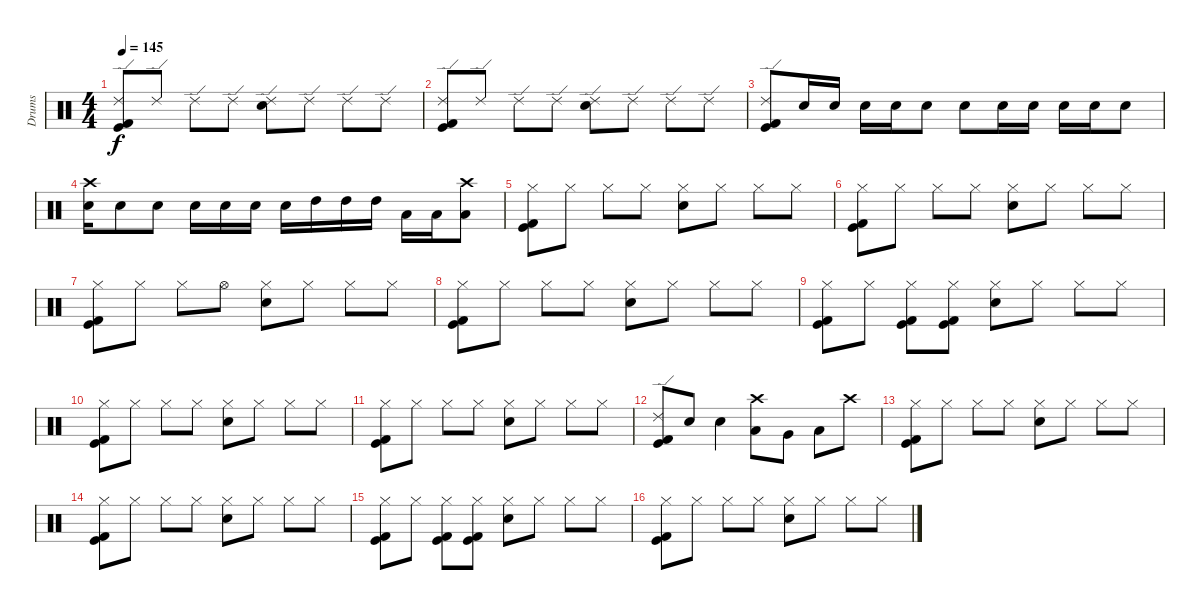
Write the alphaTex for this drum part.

\track ("Drums" "Drums") {instrument percussion}
\staff {score}
\articulation defaults
\ts (4 4)
\tempo 145
\clef neutral
\ks c
("Ride (edge) 2" "Kick (hit) 2" "Kick (hit)").8{dy f} "Ride (edge) 2".8 "Ride (edge) 2".8 "Ride (edge) 2".8 ("Ride (edge) 2" "Snare (hit) 2").8 "Ride (edge) 2".8 "Ride (edge) 2".8 "Ride (edge) 2".8 |
("Ride (edge) 2" "Kick (hit) 2" "Kick (hit)").8 "Ride (edge) 2".8 "Ride (edge) 2".8 "Ride (edge) 2".8 ("Ride (edge) 2" "Snare (hit) 2").8 "Ride (edge) 2".8 "Ride (edge) 2".8 "Ride (edge) 2".8 |
("Ride (edge) 2" "Kick (hit) 2" "Kick (hit)").8 "Snare (hit) 2".16 "Snare (hit) 2".16 "Snare (hit) 2".16 "Snare (hit) 2".16 "Snare (hit) 2".8 "Snare (hit) 2".8 "Snare (hit) 2".16 "Snare (hit) 2".16 "Snare (hit) 2".16 "Snare (hit) 2".16 "Snare (hit) 2".8 |
("Crash high (hit)" "Snare (hit) 2").16 "Snare (hit) 2".8 "Snare (hit) 2".8 "Snare (hit) 2".16 "Snare (hit) 2".16 "Snare (hit) 2".16 "Snare (hit) 2".16 "High Tom (hit)".16 "High Tom (hit)".16 "High Tom (hit)".16 "Low Tom (hit)".16 "Low Tom (hit)".16 ("Crash high (hit)" "Low Tom (hit)").8 |
("Hi-Hat (closed)" "Kick (hit) 2" "Kick (hit)").8 "Hi-Hat (closed)".8 "Hi-Hat (closed)".8 "Hi-Hat (closed)".8 ("Hi-Hat (closed)" "Snare (hit) 2").8 "Hi-Hat (closed)".8 "Hi-Hat (closed)".8 "Hi-Hat (closed)".8 |
("Hi-Hat (closed)" "Kick (hit) 2" "Kick (hit)").8 "Hi-Hat (closed)".8 "Hi-Hat (closed)".8 "Hi-Hat (closed)".8 ("Hi-Hat (closed)" "Snare (hit) 2").8 "Hi-Hat (closed)".8 "Hi-Hat (closed)".8 "Hi-Hat (closed)".8 |
("Hi-Hat (closed)" "Kick (hit) 2" "Kick (hit)").8 "Hi-Hat (closed)".8 "Hi-Hat (closed)".8 "Hi-Hat (open)".8 ("Hi-Hat (closed)" "Snare (hit) 2").8 "Hi-Hat (closed)".8 "Hi-Hat (closed)".8 "Hi-Hat (closed)".8 |
("Hi-Hat (closed)" "Kick (hit) 2" "Kick (hit)").8 "Hi-Hat (closed)".8 "Hi-Hat (closed)".8 "Hi-Hat (closed)".8 ("Hi-Hat (closed)" "Snare (hit) 2").8 "Hi-Hat (closed)".8 "Hi-Hat (closed)".8 "Hi-Hat (closed)".8 |
("Hi-Hat (closed)" "Kick (hit) 2" "Kick (hit)").8 "Hi-Hat (closed)".8 ("Hi-Hat (closed)" "Kick (hit) 2" "Kick (hit)").8 ("Hi-Hat (closed)" "Kick (hit) 2" "Kick (hit)").8 ("Hi-Hat (closed)" "Snare (hit) 2").8 "Hi-Hat (closed)".8 "Hi-Hat (closed)".8 "Hi-Hat (closed)".8 |
("Hi-Hat (closed)" "Kick (hit) 2" "Kick (hit)").8 "Hi-Hat (closed)".8 "Hi-Hat (closed)".8 "Hi-Hat (closed)".8 ("Hi-Hat (closed)" "Snare (hit) 2").8 "Hi-Hat (closed)".8 "Hi-Hat (closed)".8 "Hi-Hat (closed)".8 |
("Hi-Hat (closed)" "Kick (hit) 2" "Kick (hit)").8 "Hi-Hat (closed)".8 "Hi-Hat (closed)".8 "Hi-Hat (closed)".8 ("Hi-Hat (closed)" "Snare (hit) 2").8 "Hi-Hat (closed)".8 "Hi-Hat (closed)".8 "Hi-Hat (closed)".8 |
("Ride (edge) 2" "Kick (hit) 2" "Kick (hit)").8 "Snare (hit) 2".8 "Snare (hit) 2".4 ("Crash high (hit)" "Low Tom (hit)").8 "Very Low Tom (hit)".8 "Low Floor Tom (hit)".8 "Crash high (hit)".8 |
("Hi-Hat (closed)" "Kick (hit) 2" "Kick (hit)").8 "Hi-Hat (closed)".8 "Hi-Hat (closed)".8 "Hi-Hat (closed)".8 ("Hi-Hat (closed)" "Snare (hit) 2").8 "Hi-Hat (closed)".8 "Hi-Hat (closed)".8 "Hi-Hat (closed)".8 |
("Hi-Hat (closed)" "Kick (hit) 2" "Kick (hit)").8 "Hi-Hat (closed)".8 "Hi-Hat (closed)".8 "Hi-Hat (closed)".8 ("Hi-Hat (closed)" "Snare (hit) 2").8 "Hi-Hat (closed)".8 "Hi-Hat (closed)".8 "Hi-Hat (closed)".8 |
("Hi-Hat (closed)" "Kick (hit) 2" "Kick (hit)").8 "Hi-Hat (closed)".8 ("Hi-Hat (closed)" "Kick (hit) 2" "Kick (hit)").8 ("Hi-Hat (closed)" "Kick (hit) 2" "Kick (hit)").8 ("Hi-Hat (closed)" "Snare (hit) 2").8 "Hi-Hat (closed)".8 "Hi-Hat (closed)".8 "Hi-Hat (closed)".8 |
("Hi-Hat (closed)" "Kick (hit) 2" "Kick (hit)").8 "Hi-Hat (closed)".8 "Hi-Hat (closed)".8 "Hi-Hat (closed)".8 ("Hi-Hat (closed)" "Snare (hit) 2").8 "Hi-Hat (closed)".8 "Hi-Hat (closed)".8 "Hi-Hat (closed)".8
